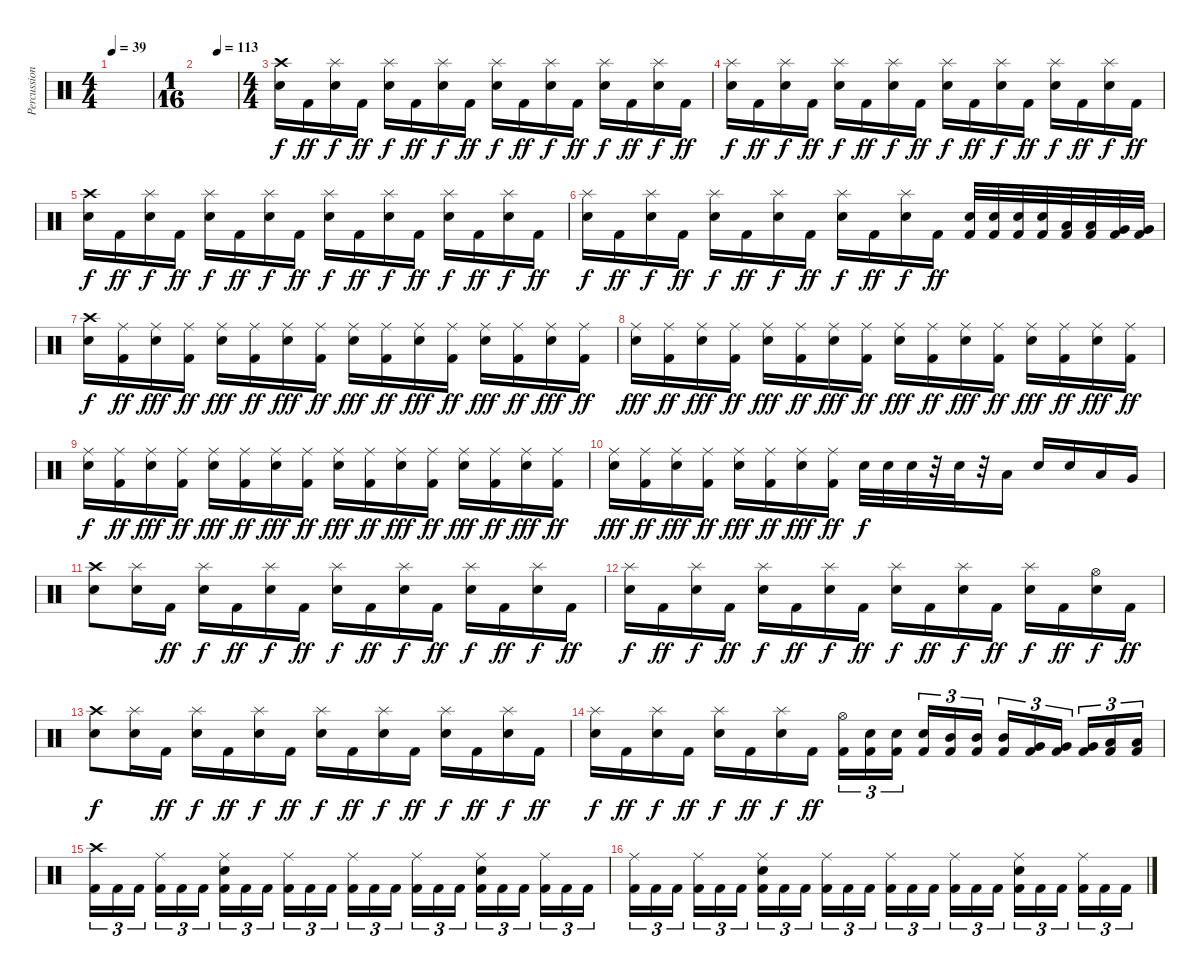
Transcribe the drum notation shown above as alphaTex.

\track ("Percussion" "Percussion") {instrument percussion}
\staff {score}
\articulation defaults
\ts (4 4)
\tempo 39
\clef neutral
\ks c
|
\ts (1 16)
\tempo (113 0.5)
|
\ts (4 4)
("Crash high (hit)" "Electric Snare (hit)").16 "Kick (hit) 2".16{dy ff} ("Splash (hit)" "Electric Snare (hit)").16{dy f} "Kick (hit) 2".16{dy ff} ("Splash (hit)" "Electric Snare (hit)").16{dy f} "Kick (hit) 2".16{dy ff} ("Splash (hit)" "Electric Snare (hit)").16{dy f} "Kick (hit) 2".16{dy ff} ("Splash (hit)" "Electric Snare (hit)").16{dy f} "Kick (hit) 2".16{dy ff} ("Splash (hit)" "Electric Snare (hit)").16{dy f} "Kick (hit) 2".16{dy ff} ("Splash (hit)" "Electric Snare (hit)").16{dy f} "Kick (hit) 2".16{dy ff} ("Splash (hit)" "Electric Snare (hit)").16{dy f} "Kick (hit) 2".16{dy ff} |
("Splash (hit)" "Electric Snare (hit)").16{dy f} "Kick (hit) 2".16{dy ff} ("Splash (hit)" "Electric Snare (hit)").16{dy f} "Kick (hit) 2".16{dy ff} ("Splash (hit)" "Electric Snare (hit)").16{dy f} "Kick (hit) 2".16{dy ff} ("Splash (hit)" "Electric Snare (hit)").16{dy f} "Kick (hit) 2".16{dy ff} ("Splash (hit)" "Electric Snare (hit)").16{dy f} "Kick (hit) 2".16{dy ff} ("Splash (hit)" "Electric Snare (hit)").16{dy f} "Kick (hit) 2".16{dy ff} ("Splash (hit)" "Electric Snare (hit)").16{dy f} "Kick (hit) 2".16{dy ff} ("Splash (hit)" "Electric Snare (hit)").16{dy f} "Kick (hit) 2".16{dy ff} |
("Crash high (hit)" "Electric Snare (hit)").16{dy f} "Kick (hit) 2".16{dy ff} ("Splash (hit)" "Electric Snare (hit)").16{dy f} "Kick (hit) 2".16{dy ff} ("Splash (hit)" "Electric Snare (hit)").16{dy f} "Kick (hit) 2".16{dy ff} ("Splash (hit)" "Electric Snare (hit)").16{dy f} "Kick (hit) 2".16{dy ff} ("Splash (hit)" "Electric Snare (hit)").16{dy f} "Kick (hit) 2".16{dy ff} ("Splash (hit)" "Electric Snare (hit)").16{dy f} "Kick (hit) 2".16{dy ff} ("Splash (hit)" "Electric Snare (hit)").16{dy f} "Kick (hit) 2".16{dy ff} ("Splash (hit)" "Electric Snare (hit)").16{dy f} "Kick (hit) 2".16{dy ff} |
("Splash (hit)" "Electric Snare (hit)").16{dy f} "Kick (hit) 2".16{dy ff} ("Splash (hit)" "Electric Snare (hit)").16{dy f} "Kick (hit) 2".16{dy ff} ("Splash (hit)" "Electric Snare (hit)").16{dy f} "Kick (hit) 2".16{dy ff} ("Splash (hit)" "Electric Snare (hit)").16{dy f} "Kick (hit) 2".16{dy ff} ("Splash (hit)" "Electric Snare (hit)").16{dy f} "Kick (hit) 2".16{dy ff} ("Splash (hit)" "Electric Snare (hit)").16{dy f} "Kick (hit) 2".16{dy ff} ("Electric Snare (hit)" "Kick (hit) 2").32 ("Electric Snare (hit)" "Kick (hit) 2").32 ("Electric Snare (hit)" "Kick (hit) 2").32 ("Electric Snare (hit)" "Kick (hit) 2").32 ("Low Tom (hit)" "Kick (hit) 2").32 ("Low Tom (hit)" "Kick (hit) 2").32 ("Very Low Tom (hit)" "Kick (hit) 2").32 ("Very Low Tom (hit)" "Kick (hit) 2").32 |
("Crash high (hit)" "Electric Snare (hit)").16{dy f} ("Ride (middle)" "Kick (hit) 2").16{dy ff} ("Ride (middle)" "Electric Snare (hit)").16{dy fff} ("Ride (middle)" "Kick (hit) 2").16{dy ff} ("Ride (middle)" "Electric Snare (hit)").16{dy fff} ("Ride (middle)" "Kick (hit) 2").16{dy ff} ("Ride (middle)" "Electric Snare (hit)").16{dy fff} ("Ride (middle)" "Kick (hit) 2").16{dy ff} ("Ride (middle)" "Electric Snare (hit)").16{dy fff} ("Ride (middle)" "Kick (hit) 2").16{dy ff} ("Ride (middle)" "Electric Snare (hit)").16{dy fff} ("Ride (middle)" "Kick (hit) 2").16{dy ff} ("Ride (middle)" "Electric Snare (hit)").16{dy fff} ("Ride (middle)" "Kick (hit) 2").16{dy ff} ("Ride (middle)" "Electric Snare (hit)").16{dy fff} ("Ride (middle)" "Kick (hit) 2").16{dy ff} |
("Ride (middle)" "Electric Snare (hit)").16{dy fff} ("Ride (middle)" "Kick (hit) 2").16{dy ff} ("Ride (middle)" "Electric Snare (hit)").16{dy fff} ("Ride (middle)" "Kick (hit) 2").16{dy ff} ("Ride (middle)" "Electric Snare (hit)").16{dy fff} ("Ride (middle)" "Kick (hit) 2").16{dy ff} ("Ride (middle)" "Electric Snare (hit)").16{dy fff} ("Ride (middle)" "Kick (hit) 2").16{dy ff} ("Ride (middle)" "Electric Snare (hit)").16{dy fff} ("Ride (middle)" "Kick (hit) 2").16{dy ff} ("Ride (middle)" "Electric Snare (hit)").16{dy fff} ("Ride (middle)" "Kick (hit) 2").16{dy ff} ("Ride (middle)" "Electric Snare (hit)").16{dy fff} ("Ride (middle)" "Kick (hit) 2").16{dy ff} ("Ride (middle)" "Electric Snare (hit)").16{dy fff} ("Ride (middle)" "Kick (hit) 2").16{dy ff} |
("Ride (middle)" "Electric Snare (hit)").16{dy f} ("Ride (middle)" "Kick (hit) 2").16{dy ff} ("Ride (middle)" "Electric Snare (hit)").16{dy fff} ("Ride (middle)" "Kick (hit) 2").16{dy ff} ("Ride (middle)" "Electric Snare (hit)").16{dy fff} ("Ride (middle)" "Kick (hit) 2").16{dy ff} ("Ride (middle)" "Electric Snare (hit)").16{dy fff} ("Ride (middle)" "Kick (hit) 2").16{dy ff} ("Ride (middle)" "Electric Snare (hit)").16{dy fff} ("Ride (middle)" "Kick (hit) 2").16{dy ff} ("Ride (middle)" "Electric Snare (hit)").16{dy fff} ("Ride (middle)" "Kick (hit) 2").16{dy ff} ("Ride (middle)" "Electric Snare (hit)").16{dy fff} ("Ride (middle)" "Kick (hit) 2").16{dy ff} ("Ride (middle)" "Electric Snare (hit)").16{dy fff} ("Ride (middle)" "Kick (hit) 2").16{dy ff} |
("Ride (middle)" "Electric Snare (hit)").16{dy fff} ("Ride (middle)" "Kick (hit) 2").16{dy ff} ("Ride (middle)" "Electric Snare (hit)").16{dy fff} ("Ride (middle)" "Kick (hit) 2").16{dy ff} ("Ride (middle)" "Electric Snare (hit)").16{dy fff} ("Ride (middle)" "Kick (hit) 2").16{dy ff} ("Ride (middle)" "Electric Snare (hit)").16{dy fff} ("Ride (middle)" "Kick (hit) 2").16{dy ff} "Electric Snare (hit)".32{dy f} "Electric Snare (hit)".32 "Electric Snare (hit)".32 r.32 "Electric Snare (hit)".32 r.32 "Low Tom (hit)".16 "Electric Snare (hit)".16 "Electric Snare (hit)".16 "Low Tom (hit)".16 "Very Low Tom (hit)".16 |
("Crash high (hit)" "Electric Snare (hit)").8 ("Splash (hit)" "Electric Snare (hit)").16 "Kick (hit) 2".16{dy ff} ("Splash (hit)" "Electric Snare (hit)").16{dy f} "Kick (hit) 2".16{dy ff} ("Splash (hit)" "Electric Snare (hit)").16{dy f} "Kick (hit) 2".16{dy ff} ("Splash (hit)" "Electric Snare (hit)").16{dy f} "Kick (hit) 2".16{dy ff} ("Splash (hit)" "Electric Snare (hit)").16{dy f} "Kick (hit) 2".16{dy ff} ("Splash (hit)" "Electric Snare (hit)").16{dy f} "Kick (hit) 2".16{dy ff} ("Splash (hit)" "Electric Snare (hit)").16{dy f} "Kick (hit) 2".16{dy ff} |
("Splash (hit)" "Electric Snare (hit)").16{dy f} "Kick (hit) 2".16{dy ff} ("Splash (hit)" "Electric Snare (hit)").16{dy f} "Kick (hit) 2".16{dy ff} ("Splash (hit)" "Electric Snare (hit)").16{dy f} "Kick (hit) 2".16{dy ff} ("Splash (hit)" "Electric Snare (hit)").16{dy f} "Kick (hit) 2".16{dy ff} ("Splash (hit)" "Electric Snare (hit)").16{dy f} "Kick (hit) 2".16{dy ff} ("Splash (hit)" "Electric Snare (hit)").16{dy f} "Kick (hit) 2".16{dy ff} ("Splash (hit)" "Electric Snare (hit)").16{dy f} "Kick (hit) 2".16{dy ff} ("Hi-Hat (open)" "Electric Snare (hit)").16{dy f} "Kick (hit) 2".16{dy ff} |
("Crash high (hit)" "Electric Snare (hit)").8{dy f} ("Splash (hit)" "Electric Snare (hit)").16 "Kick (hit) 2".16{dy ff} ("Splash (hit)" "Electric Snare (hit)").16{dy f} "Kick (hit) 2".16{dy ff} ("Splash (hit)" "Electric Snare (hit)").16{dy f} "Kick (hit) 2".16{dy ff} ("Splash (hit)" "Electric Snare (hit)").16{dy f} "Kick (hit) 2".16{dy ff} ("Splash (hit)" "Electric Snare (hit)").16{dy f} "Kick (hit) 2".16{dy ff} ("Splash (hit)" "Electric Snare (hit)").16{dy f} "Kick (hit) 2".16{dy ff} ("Splash (hit)" "Electric Snare (hit)").16{dy f} "Kick (hit) 2".16{dy ff} |
("Splash (hit)" "Electric Snare (hit)").16{dy f} "Kick (hit) 2".16{dy ff} ("Splash (hit)" "Electric Snare (hit)").16{dy f} "Kick (hit) 2".16{dy ff} ("Splash (hit)" "Electric Snare (hit)").16{dy f} "Kick (hit) 2".16{dy ff} ("Splash (hit)" "Electric Snare (hit)").16{dy f} "Kick (hit) 2".16{dy ff} ("Hi-Hat (open)" "Kick (hit) 2").16{tu (3 2)} ("Electric Snare (hit)" "Kick (hit) 2").16{tu (3 2)} ("Electric Snare (hit)" "Kick (hit) 2").16{tu (3 2)} ("Electric Snare (hit)" "Kick (hit) 2").16{tu (3 2)} ("Mid Tom (hit)" "Kick (hit) 2").16{tu (3 2)} ("Mid Tom (hit)" "Kick (hit) 2").16{tu (3 2)} ("Mid Tom (hit)" "Kick (hit) 2").16{tu (3 2)} ("Very Low Tom (hit)" "Kick (hit) 2").16{tu (3 2)} ("Very Low Tom (hit)" "Kick (hit) 2").16{tu (3 2)} ("Very Low Tom (hit)" "Kick (hit) 2").16{tu (3 2)} ("Low Floor Tom (hit)" "Kick (hit) 2").16{tu (3 2)} ("Low Floor Tom (hit)" "Kick (hit) 2").16{tu (3 2)} |
("Crash high (hit)" "Kick (hit) 2").16{tu (3 2)} "Kick (hit) 2".16{tu (3 2)} "Kick (hit) 2".16{tu (3 2)} ("Ride (middle)" "Kick (hit) 2").16{tu (3 2)} "Kick (hit) 2".16{tu (3 2)} "Kick (hit) 2".16{tu (3 2)} ("Ride (middle)" "Electric Snare (hit)" "Kick (hit) 2").16{tu (3 2)} "Kick (hit) 2".16{tu (3 2)} "Kick (hit) 2".16{tu (3 2)} ("Ride (middle)" "Kick (hit) 2").16{tu (3 2)} "Kick (hit) 2".16{tu (3 2)} "Kick (hit) 2".16{tu (3 2)} ("Ride (middle)" "Kick (hit) 2").16{tu (3 2)} "Kick (hit) 2".16{tu (3 2)} "Kick (hit) 2".16{tu (3 2)} ("Ride (middle)" "Kick (hit) 2").16{tu (3 2)} "Kick (hit) 2".16{tu (3 2)} "Kick (hit) 2".16{tu (3 2)} ("Ride (middle)" "Electric Snare (hit)" "Kick (hit) 2").16{tu (3 2)} "Kick (hit) 2".16{tu (3 2)} "Kick (hit) 2".16{tu (3 2)} ("Ride (middle)" "Kick (hit) 2").16{tu (3 2)} "Kick (hit) 2".16{tu (3 2)} "Kick (hit) 2".16{tu (3 2)} |
("Ride (middle)" "Kick (hit) 2").16{tu (3 2)} "Kick (hit) 2".16{tu (3 2)} "Kick (hit) 2".16{tu (3 2)} ("Ride (middle)" "Kick (hit) 2").16{tu (3 2)} "Kick (hit) 2".16{tu (3 2)} "Kick (hit) 2".16{tu (3 2)} ("Ride (middle)" "Electric Snare (hit)" "Kick (hit) 2").16{tu (3 2)} "Kick (hit) 2".16{tu (3 2)} "Kick (hit) 2".16{tu (3 2)} ("Ride (middle)" "Kick (hit) 2").16{tu (3 2)} "Kick (hit) 2".16{tu (3 2)} "Kick (hit) 2".16{tu (3 2)} ("Ride (middle)" "Kick (hit) 2").16{tu (3 2)} "Kick (hit) 2".16{tu (3 2)} "Kick (hit) 2".16{tu (3 2)} ("Ride (middle)" "Kick (hit) 2").16{tu (3 2)} "Kick (hit) 2".16{tu (3 2)} "Kick (hit) 2".16{tu (3 2)} ("Ride (middle)" "Electric Snare (hit)" "Kick (hit) 2").16{tu (3 2)} "Kick (hit) 2".16{tu (3 2)} "Kick (hit) 2".16{tu (3 2)} ("Ride (middle)" "Kick (hit) 2").16{tu (3 2)} "Kick (hit) 2".16{tu (3 2)} "Kick (hit) 2".16{tu (3 2)}
